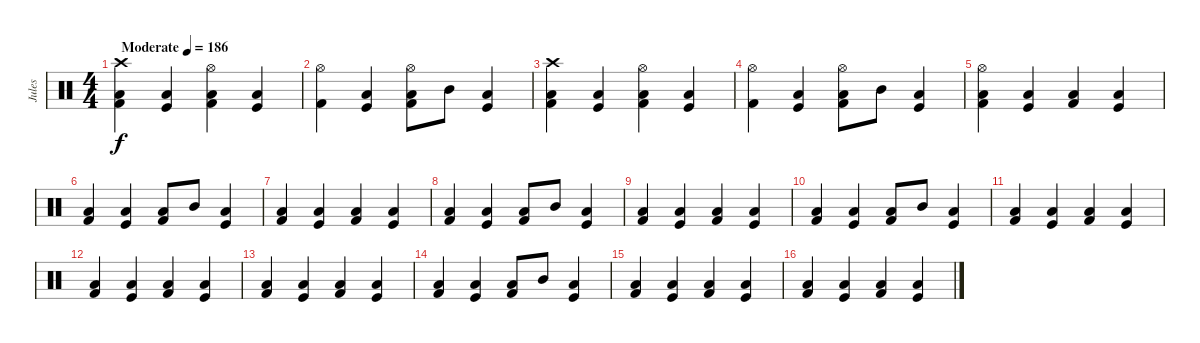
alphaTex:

\track ("Jules" "Jules") {instrument percussion}
\staff {score}
\articulation defaults
\ts (4 4)
\tempo (186 "Moderate")
\clef neutral
\ks c
("Kick (hit) 2" "Low Floor Tom (hit)" "Crash high (hit)").4{dy f} ("Kick (hit)" "Low Floor Tom (hit)").4 ("Kick (hit) 2" "Hi-Hat (open)" "Low Floor Tom (hit)").4 ("Kick (hit)" "Low Floor Tom (hit)").4 |
("Kick (hit) 2" "Hi-Hat (open)").4 ("Kick (hit)" "Low Floor Tom (hit)").4 ("Kick (hit) 2" "Hi-Hat (open)" "Low Floor Tom (hit)").8 "Mid Tom (hit)".8 ("Kick (hit)" "Low Floor Tom (hit)").4 |
("Kick (hit) 2" "Low Floor Tom (hit)" "Crash high (hit)").4 ("Kick (hit)" "Low Floor Tom (hit)").4 ("Kick (hit) 2" "Hi-Hat (open)" "Low Floor Tom (hit)").4 ("Kick (hit)" "Low Floor Tom (hit)").4 |
("Kick (hit) 2" "Hi-Hat (open)").4 ("Kick (hit)" "Low Floor Tom (hit)").4 ("Kick (hit) 2" "Hi-Hat (open)" "Low Floor Tom (hit)").8 "Mid Tom (hit)".8 ("Kick (hit)" "Low Floor Tom (hit)").4 |
("Kick (hit) 2" "Low Floor Tom (hit)" "Hi-Hat (open)").4 ("Kick (hit)" "Low Floor Tom (hit)").4 ("Kick (hit) 2" "Low Floor Tom (hit)").4 ("Kick (hit)" "Low Floor Tom (hit)").4 |
("Kick (hit) 2" "Low Floor Tom (hit)").4 ("Kick (hit)" "Low Floor Tom (hit)").4 ("Kick (hit) 2" "Low Floor Tom (hit)").8 "Mid Tom (hit)".8 ("Kick (hit)" "Low Floor Tom (hit)").4 |
("Kick (hit) 2" "Low Floor Tom (hit)").4 ("Kick (hit)" "Low Floor Tom (hit)").4 ("Kick (hit) 2" "Low Floor Tom (hit)").4 ("Kick (hit)" "Low Floor Tom (hit)").4 |
("Kick (hit) 2" "Low Floor Tom (hit)").4 ("Kick (hit)" "Low Floor Tom (hit)").4 ("Kick (hit) 2" "Low Floor Tom (hit)").8 "Mid Tom (hit)".8 ("Kick (hit)" "Low Floor Tom (hit)").4 |
("Kick (hit) 2" "Low Floor Tom (hit)").4 ("Kick (hit)" "Low Floor Tom (hit)").4 ("Kick (hit) 2" "Low Floor Tom (hit)").4 ("Kick (hit)" "Low Floor Tom (hit)").4 |
("Kick (hit) 2" "Low Floor Tom (hit)").4 ("Kick (hit)" "Low Floor Tom (hit)").4 ("Kick (hit) 2" "Low Floor Tom (hit)").8 "Mid Tom (hit)".8 ("Kick (hit)" "Low Floor Tom (hit)").4 |
("Kick (hit) 2" "Low Floor Tom (hit)").4 ("Kick (hit)" "Low Floor Tom (hit)").4 ("Kick (hit) 2" "Low Floor Tom (hit)").4 ("Kick (hit)" "Low Floor Tom (hit)").4 |
("Kick (hit) 2" "Low Floor Tom (hit)").4 ("Kick (hit)" "Low Floor Tom (hit)").4 ("Kick (hit) 2" "Low Floor Tom (hit)").4 ("Kick (hit)" "Low Floor Tom (hit)").4 |
("Kick (hit) 2" "Low Floor Tom (hit)").4 ("Kick (hit)" "Low Floor Tom (hit)").4 ("Kick (hit) 2" "Low Floor Tom (hit)").4 ("Kick (hit)" "Low Floor Tom (hit)").4 |
("Kick (hit) 2" "Low Floor Tom (hit)").4 ("Kick (hit)" "Low Floor Tom (hit)").4 ("Kick (hit) 2" "Low Floor Tom (hit)").8 "Mid Tom (hit)".8 ("Kick (hit)" "Low Floor Tom (hit)").4 |
("Kick (hit) 2" "Low Floor Tom (hit)").4 ("Kick (hit)" "Low Floor Tom (hit)").4 ("Kick (hit) 2" "Low Floor Tom (hit)").4 ("Kick (hit)" "Low Floor Tom (hit)").4 |
("Kick (hit) 2" "Low Floor Tom (hit)").4 ("Kick (hit)" "Low Floor Tom (hit)").4 ("Kick (hit) 2" "Low Floor Tom (hit)").4 ("Kick (hit)" "Low Floor Tom (hit)").4
